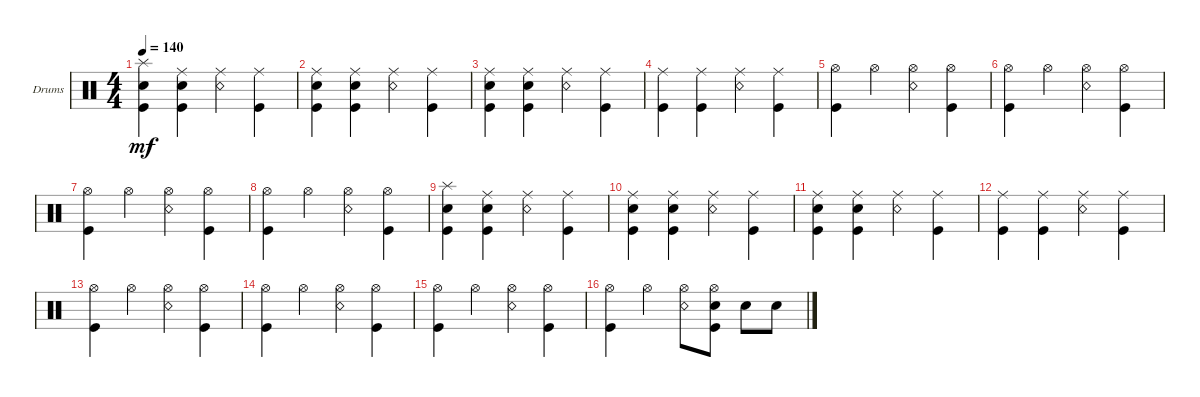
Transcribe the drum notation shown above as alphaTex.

\defaultSystemsLayout 4
\bracketExtendMode groupsimilarinstruments
\firstSystemTrackNameOrientation horizontal
\otherSystemsTrackNameOrientation horizontal
\track ("Drumkit" "Drums") {instrument percussion}
\staff {score}
\articulation defaults
\ts (4 4)
\tempo 140
\clef neutral
\ks c
("Kick (hit)" "Snare (hit) 2" "Splash (hit)").4{dy mf} ("Snare (hit) 2" "Kick (hit)" "Ride (middle)").4 ("Snare (rim shot)" "Ride (middle)").4 ("Ride (middle)" "Kick (hit)").4 |
("Kick (hit)" "Snare (hit) 2" "Ride (middle)").4 ("Snare (hit) 2" "Kick (hit)" "Ride (middle)").4 ("Snare (rim shot)" "Ride (middle)").4 ("Ride (middle)" "Kick (hit)").4 |
("Kick (hit)" "Snare (hit) 2" "Ride (middle)").4 ("Snare (hit) 2" "Kick (hit)" "Ride (middle)").4 ("Snare (rim shot)" "Ride (middle)").4 ("Ride (middle)" "Kick (hit)").4 |
("Kick (hit)" "Ride (middle)").4 ("Kick (hit)" "Ride (middle)").4 ("Snare (rim shot)" "Ride (middle)").4 ("Ride (middle)" "Kick (hit)").4 |
\scale
0.333333 ("Kick (hit)" "Hi-Hat (open)").4 "Hi-Hat (open)".4 ("Snare (rim shot)" "Hi-Hat (open)").4 ("Kick (hit)" "Hi-Hat (open)").4 |
\scale
0.333333 ("Kick (hit)" "Hi-Hat (open)").4 "Hi-Hat (open)".4 ("Snare (rim shot)" "Hi-Hat (open)").4 ("Kick (hit)" "Hi-Hat (open)").4 |
\scale
0.333333 ("Kick (hit)" "Hi-Hat (open)").4 "Hi-Hat (open)".4 ("Snare (rim shot)" "Hi-Hat (open)").4 ("Kick (hit)" "Hi-Hat (open)").4 |
\scale
0.333333 ("Kick (hit)" "Hi-Hat (open)").4 "Hi-Hat (open)".4 ("Snare (rim shot)" "Hi-Hat (open)").4 ("Kick (hit)" "Hi-Hat (open)").4 |
\scale
0.333333 ("Kick (hit)" "Snare (hit) 2" "Splash (hit)").4 ("Snare (hit) 2" "Kick (hit)" "Ride (middle)").4 ("Snare (rim shot)" "Ride (middle)").4 ("Ride (middle)" "Kick (hit)").4 |
\scale
0.333333 ("Kick (hit)" "Snare (hit) 2" "Ride (middle)").4 ("Snare (hit) 2" "Kick (hit)" "Ride (middle)").4 ("Snare (rim shot)" "Ride (middle)").4 ("Ride (middle)" "Kick (hit)").4 |
\scale
0.333333 ("Kick (hit)" "Snare (hit) 2" "Ride (middle)").4 ("Snare (hit) 2" "Kick (hit)" "Ride (middle)").4 ("Snare (rim shot)" "Ride (middle)").4 ("Ride (middle)" "Kick (hit)").4 |
\scale
0.333333 ("Kick (hit)" "Ride (middle)").4 ("Kick (hit)" "Ride (middle)").4 ("Snare (rim shot)" "Ride (middle)").4 ("Ride (middle)" "Kick (hit)").4 |
\scale
0.333333 ("Kick (hit)" "Hi-Hat (open)").4 "Hi-Hat (open)".4 ("Snare (rim shot)" "Hi-Hat (open)").4 ("Kick (hit)" "Hi-Hat (open)").4 |
\scale
0.333333 ("Kick (hit)" "Hi-Hat (open)").4 "Hi-Hat (open)".4 ("Snare (rim shot)" "Hi-Hat (open)").4 ("Kick (hit)" "Hi-Hat (open)").4 |
\scale
0.333333 ("Kick (hit)" "Hi-Hat (open)").4 "Hi-Hat (open)".4 ("Snare (rim shot)" "Hi-Hat (open)").4 ("Kick (hit)" "Hi-Hat (open)").4 |
\scale
0.333333 ("Kick (hit)" "Hi-Hat (open)").4 "Hi-Hat (open)".4 ("Snare (rim shot)" "Hi-Hat (open)").8 ("Kick (hit)" "Hi-Hat (open)" "Snare (hit) 2").8 "Snare (hit) 2".8 "Snare (hit) 2".8
